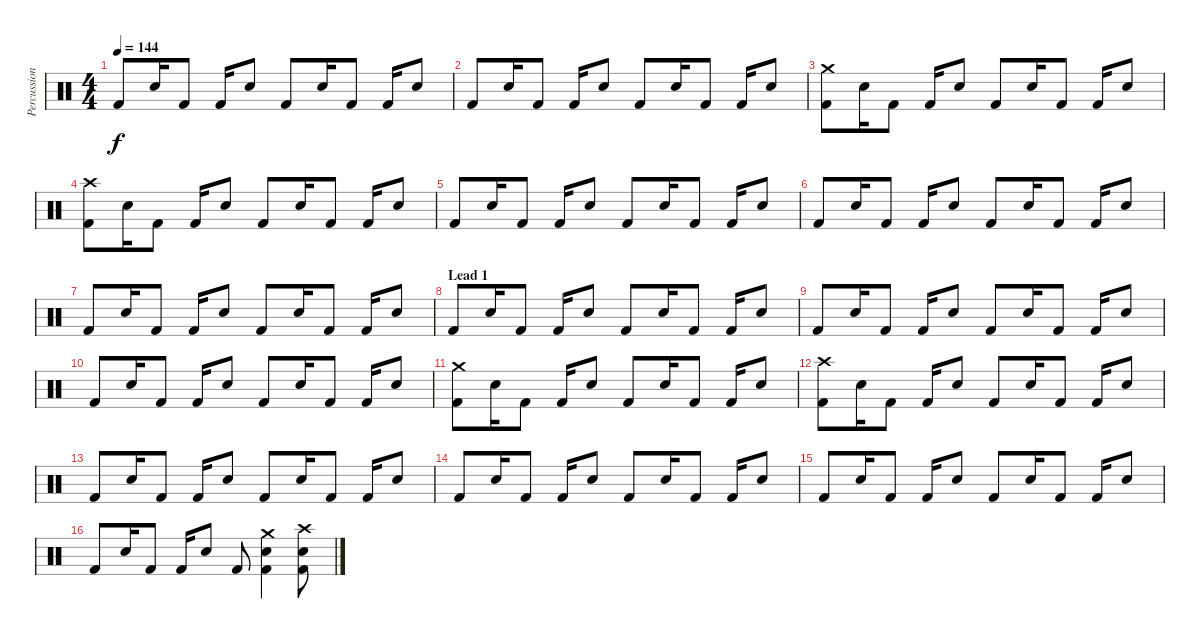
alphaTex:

\track ("Percussion" "Percussion") {instrument percussion}
\staff {score}
\articulation defaults
\ts (4 4)
\tempo 144
\clef neutral
\ks c "Kick (hit) 2".8{dy f} "Snare (hit) 2".16 "Kick (hit) 2".8 "Kick (hit) 2".16 "Snare (hit) 2".8 "Kick (hit) 2".8 "Snare (hit) 2".16 "Kick (hit) 2".8 "Kick (hit) 2".16 "Snare (hit) 2".8
|
"Kick (hit) 2".8 "Snare (hit) 2".16 "Kick (hit) 2".8 "Kick (hit) 2".16 "Snare (hit) 2".8 "Kick (hit) 2".8 "Snare (hit) 2".16 "Kick (hit) 2".8 "Kick (hit) 2".16 "Snare (hit) 2".8 |
("Crash medium (hit)" "Kick (hit) 2").8 "Snare (hit) 2".16 "Kick (hit) 2".8 "Kick (hit) 2".16 "Snare (hit) 2".8 "Kick (hit) 2".8 "Snare (hit) 2".16 "Kick (hit) 2".8 "Kick (hit) 2".16 "Snare (hit) 2".8 |
("Crash high (hit)" "Kick (hit) 2").8 "Snare (hit) 2".16 "Kick (hit) 2".8 "Kick (hit) 2".16 "Snare (hit) 2".8 "Kick (hit) 2".8 "Snare (hit) 2".16 "Kick (hit) 2".8 "Kick (hit) 2".16 "Snare (hit) 2".8 |
"Kick (hit) 2".8 "Snare (hit) 2".16 "Kick (hit) 2".8 "Kick (hit) 2".16 "Snare (hit) 2".8 "Kick (hit) 2".8 "Snare (hit) 2".16 "Kick (hit) 2".8 "Kick (hit) 2".16 "Snare (hit) 2".8 |
"Kick (hit) 2".8 "Snare (hit) 2".16 "Kick (hit) 2".8 "Kick (hit) 2".16 "Snare (hit) 2".8 "Kick (hit) 2".8 "Snare (hit) 2".16 "Kick (hit) 2".8 "Kick (hit) 2".16 "Snare (hit) 2".8 |
"Kick (hit) 2".8 "Snare (hit) 2".16 "Kick (hit) 2".8 "Kick (hit) 2".16 "Snare (hit) 2".8 "Kick (hit) 2".8 "Snare (hit) 2".16 "Kick (hit) 2".8 "Kick (hit) 2".16 "Snare (hit) 2".8 |
\section ("" "Lead 1")
"Kick (hit) 2".8 "Snare (hit) 2".16 "Kick (hit) 2".8 "Kick (hit) 2".16 "Snare (hit) 2".8 "Kick (hit) 2".8 "Snare (hit) 2".16 "Kick (hit) 2".8 "Kick (hit) 2".16 "Snare (hit) 2".8 |
"Kick (hit) 2".8 "Snare (hit) 2".16 "Kick (hit) 2".8 "Kick (hit) 2".16 "Snare (hit) 2".8 "Kick (hit) 2".8 "Snare (hit) 2".16 "Kick (hit) 2".8 "Kick (hit) 2".16 "Snare (hit) 2".8 |
"Kick (hit) 2".8 "Snare (hit) 2".16 "Kick (hit) 2".8 "Kick (hit) 2".16 "Snare (hit) 2".8 "Kick (hit) 2".8 "Snare (hit) 2".16 "Kick (hit) 2".8 "Kick (hit) 2".16 "Snare (hit) 2".8 |
("Crash medium (hit)" "Kick (hit) 2").8 "Snare (hit) 2".16 "Kick (hit) 2".8 "Kick (hit) 2".16 "Snare (hit) 2".8 "Kick (hit) 2".8 "Snare (hit) 2".16 "Kick (hit) 2".8 "Kick (hit) 2".16 "Snare (hit) 2".8 |
("Crash high (hit)" "Kick (hit) 2").8 "Snare (hit) 2".16 "Kick (hit) 2".8 "Kick (hit) 2".16 "Snare (hit) 2".8 "Kick (hit) 2".8 "Snare (hit) 2".16 "Kick (hit) 2".8 "Kick (hit) 2".16 "Snare (hit) 2".8 |
"Kick (hit) 2".8 "Snare (hit) 2".16 "Kick (hit) 2".8 "Kick (hit) 2".16 "Snare (hit) 2".8 "Kick (hit) 2".8 "Snare (hit) 2".16 "Kick (hit) 2".8 "Kick (hit) 2".16 "Snare (hit) 2".8 |
"Kick (hit) 2".8 "Snare (hit) 2".16 "Kick (hit) 2".8 "Kick (hit) 2".16 "Snare (hit) 2".8 "Kick (hit) 2".8 "Snare (hit) 2".16 "Kick (hit) 2".8 "Kick (hit) 2".16 "Snare (hit) 2".8 |
"Kick (hit) 2".8 "Snare (hit) 2".16 "Kick (hit) 2".8 "Kick (hit) 2".16 "Snare (hit) 2".8 "Kick (hit) 2".8 "Snare (hit) 2".16 "Kick (hit) 2".8 "Kick (hit) 2".16 "Snare (hit) 2".8 |
"Kick (hit) 2".8 "Snare (hit) 2".16 "Kick (hit) 2".8 "Kick (hit) 2".16 "Snare (hit) 2".8 "Kick (hit) 2".8 ("Crash medium (hit)" "Snare (hit) 2" "Kick (hit) 2").4 ("Crash high (hit)" "Snare (hit) 2" "Kick (hit) 2").8
